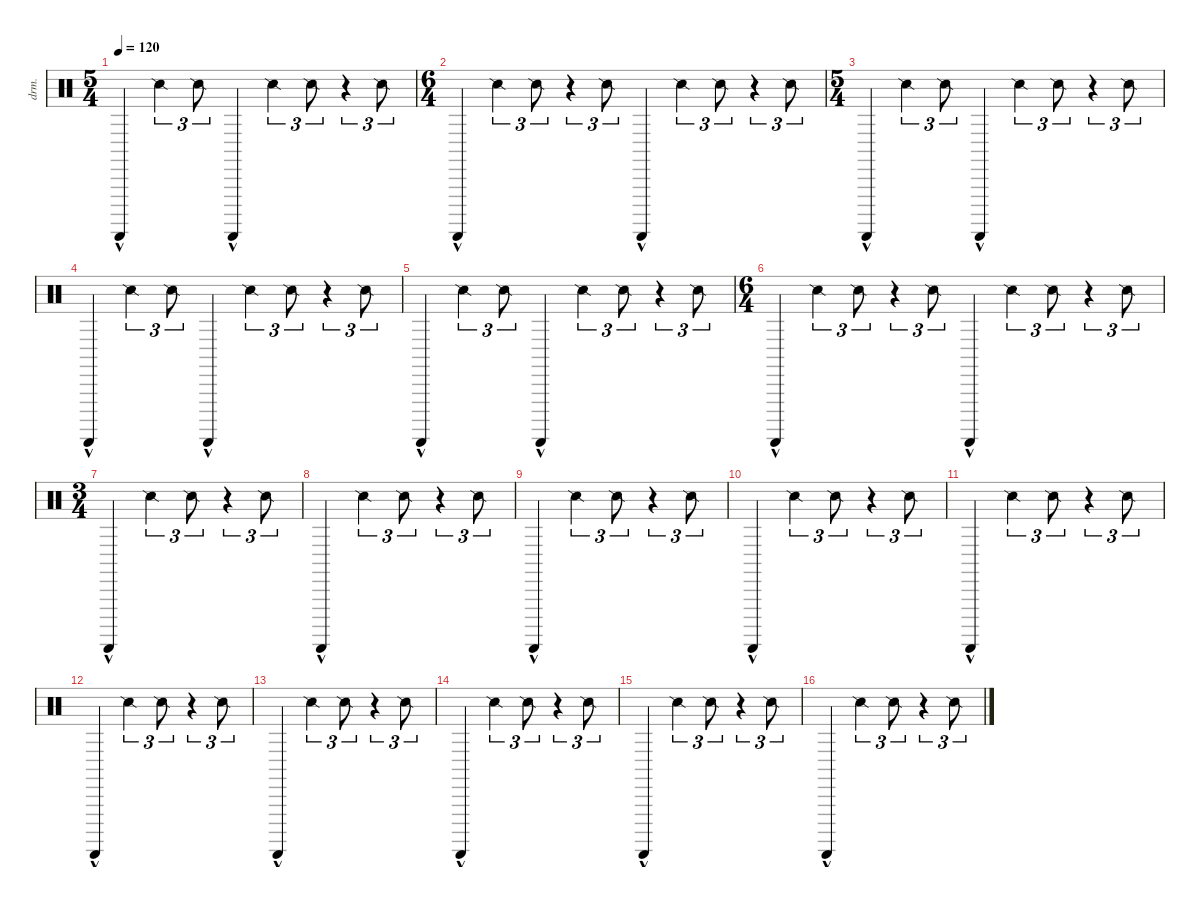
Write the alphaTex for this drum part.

\defaultSystemsLayout 4
\hideDynamics
\bracketExtendMode nobrackets
\otherSystemsTrackNameOrientation horizontal
\track ("Aux. Percussion" "drm.") {instrument percussion}
\staff {score}
\articulation defaults
\ts (5 4)
\tempo 120
\clef neutral
\ks c "Guiro (scrap-return)"{hac}.4{dy f beam Up} "Snare (side stick) 2".4{tu (3 2) dy mf beam Down} "Snare (side stick) 2".8{tu (3 2) beam Down} "Guiro (scrap-return)"{hac}.4{dy f beam Up} "Snare (side stick) 2".4{tu (3 2) dy mf beam Down} "Snare (side stick) 2".8{tu (3 2) beam Down}
r.4{tu (3 2) beam Down} "Snare (side stick) 2".8{tu (3 2) beam Down} |
\ts (6 4)
\beaming (8 6 6)
"Guiro (scrap-return)"{hac}.4{dy f beam Up} "Snare (side stick) 2".4{tu (3 2) dy mf beam Down} "Snare (side stick) 2".8{tu (3 2) beam Down} r.4{tu (3 2) beam Down} "Snare (side stick) 2".8{tu (3 2) beam Down} "Guiro (scrap-return)"{hac}.4{dy f beam Up} "Snare (side stick) 2".4{tu (3 2) dy mf beam Down} "Snare (side stick) 2".8{tu (3 2) beam Down} r.4{tu (3 2) beam Down} "Snare (side stick) 2".8{tu (3 2) beam Down} |
\ts (5 4)
\beaming (8 4 4 2)
"Guiro (scrap-return)"{hac}.4{dy f beam Up} "Snare (side stick) 2".4{tu (3 2) dy mf beam Down} "Snare (side stick) 2".8{tu (3 2) beam Down} "Guiro (scrap-return)"{hac}.4{dy f beam Up} "Snare (side stick) 2".4{tu (3 2) dy mf beam Down} "Snare (side stick) 2".8{tu (3 2) beam Down} r.4{tu (3 2) beam Down} "Snare (side stick) 2".8{tu (3 2) beam Down} |
"Guiro (scrap-return)"{hac}.4{dy f beam Up} "Snare (side stick) 2".4{tu (3 2) dy mf beam Down} "Snare (side stick) 2".8{tu (3 2) beam Down} "Guiro (scrap-return)"{hac}.4{dy f beam Up} "Snare (side stick) 2".4{tu (3 2) dy mf beam Down} "Snare (side stick) 2".8{tu (3 2) beam Down} r.4{tu (3 2) beam Down} "Snare (side stick) 2".8{tu (3 2) beam Down} |
"Guiro (scrap-return)"{hac}.4{dy f beam Up} "Snare (side stick) 2".4{tu (3 2) dy mf beam Down} "Snare (side stick) 2".8{tu (3 2) beam Down} "Guiro (scrap-return)"{hac}.4{dy f beam Up} "Snare (side stick) 2".4{tu (3 2) dy mf beam Down} "Snare (side stick) 2".8{tu (3 2) beam Down} r.4{tu (3 2) beam Down} "Snare (side stick) 2".8{tu (3 2) beam Down} |
\ts (6 4)
\beaming (8 6 6)
"Guiro (scrap-return)"{hac}.4{dy f beam Up} "Snare (side stick) 2".4{tu (3 2) dy mf beam Down} "Snare (side stick) 2".8{tu (3 2) beam Down} r.4{tu (3 2) beam Down} "Snare (side stick) 2".8{tu (3 2) beam Down} "Guiro (scrap-return)"{hac}.4{dy f beam Up} "Snare (side stick) 2".4{tu (3 2) dy mf beam Down} "Snare (side stick) 2".8{tu (3 2) beam Down} r.4{tu (3 2) beam Down} "Snare (side stick) 2".8{tu (3 2) beam Down} |
\ts (3 4)
\beaming (8 2 2 2)
"Guiro (scrap-return)"{hac}.4{dy f beam Up} "Snare (side stick) 2".4{tu (3 2) dy mf beam Down} "Snare (side stick) 2".8{tu (3 2) beam Down} r.4{tu (3 2) beam Down} "Snare (side stick) 2".8{tu (3 2) beam Down} |
"Guiro (scrap-return)"{hac}.4{dy f beam Up} "Snare (side stick) 2".4{tu (3 2) dy mf beam Down} "Snare (side stick) 2".8{tu (3 2) beam Down} r.4{tu (3 2) beam Down} "Snare (side stick) 2".8{tu (3 2) beam Down} |
"Guiro (scrap-return)"{hac}.4{dy f beam Up} "Snare (side stick) 2".4{tu (3 2) dy mf beam Down} "Snare (side stick) 2".8{tu (3 2) beam Down} r.4{tu (3 2) beam Down} "Snare (side stick) 2".8{tu (3 2) beam Down} |
"Guiro (scrap-return)"{hac}.4{dy f beam Up} "Snare (side stick) 2".4{tu (3 2) dy mf beam Down} "Snare (side stick) 2".8{tu (3 2) beam Down} r.4{tu (3 2) beam Down} "Snare (side stick) 2".8{tu (3 2) beam Down} |
"Guiro (scrap-return)"{hac}.4{dy f beam Up} "Snare (side stick) 2".4{tu (3 2) dy mf beam Down} "Snare (side stick) 2".8{tu (3 2) beam Down} r.4{tu (3 2) beam Down} "Snare (side stick) 2".8{tu (3 2) beam Down} |
"Guiro (scrap-return)"{hac}.4{dy f beam Up} "Snare (side stick) 2".4{tu (3 2) dy mf beam Down} "Snare (side stick) 2".8{tu (3 2) beam Down} r.4{tu (3 2) beam Down} "Snare (side stick) 2".8{tu (3 2) beam Down} |
"Guiro (scrap-return)"{hac}.4{dy f beam Up} "Snare (side stick) 2".4{tu (3 2) dy mf beam Down} "Snare (side stick) 2".8{tu (3 2) beam Down} r.4{tu (3 2) beam Down} "Snare (side stick) 2".8{tu (3 2) beam Down} |
"Guiro (scrap-return)"{hac}.4{dy f beam Up} "Snare (side stick) 2".4{tu (3 2) dy mf beam Down} "Snare (side stick) 2".8{tu (3 2) beam Down} r.4{tu (3 2) beam Down} "Snare (side stick) 2".8{tu (3 2) beam Down} |
"Guiro (scrap-return)"{hac}.4{dy f beam Up} "Snare (side stick) 2".4{tu (3 2) dy mf beam Down} "Snare (side stick) 2".8{tu (3 2) beam Down} r.4{tu (3 2) beam Down} "Snare (side stick) 2".8{tu (3 2) beam Down} |
"Guiro (scrap-return)"{hac}.4{dy f beam Up} "Snare (side stick) 2".4{tu (3 2) dy mf beam Down} "Snare (side stick) 2".8{tu (3 2) beam Down} r.4{tu (3 2) beam Down} "Snare (side stick) 2".8{tu (3 2) beam Down}
